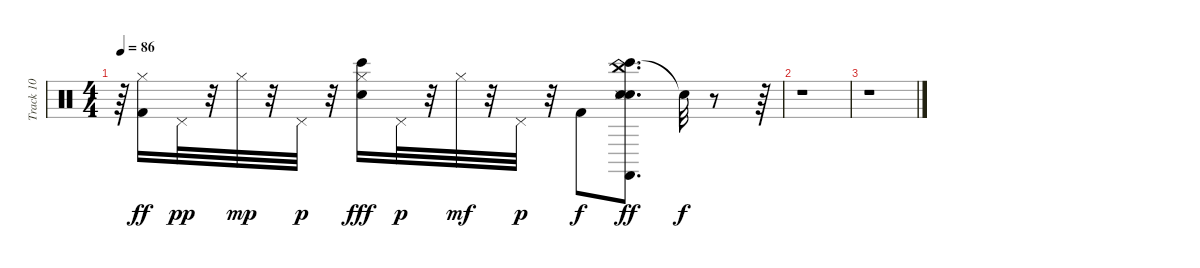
\track ("Track 10" "Track 10") {instrument percussion}
\staff {score}
\articulation defaults
\ts (4 4)
\tempo 86
\clef neutral
\ks c
r.64{dy p} ("Hi-Hat (closed)" "Kick (hit) 2").16{dy ff} "Pedal Hi-Hat (hit)".32{dy pp} r.32 "Hi-Hat (closed)".32{dy mp} r.32 "Pedal Hi-Hat (hit)".32{dy p} r.32 ("Hi-Hat (closed)" "Electric Snare (hit)" "Bongo High (hit)").16{dy fff} "Pedal Hi-Hat (hit)".32{dy p} r.32 "Hi-Hat (closed)".32{dy mf} r.32 "Pedal Hi-Hat (hit)".32{dy p} r.32 "Kick (hit) 2".8{dy f} ("China (hit)" "Bongo High (hit)" "Hand Clap (hit)" "Snare (side stick) 3" "Castanets (hit)" "Snare (hit)").8{d dy ff} "Snare (hit)"{t}.32{dy f} r.8 r.64 |
r.1 |
r.1
